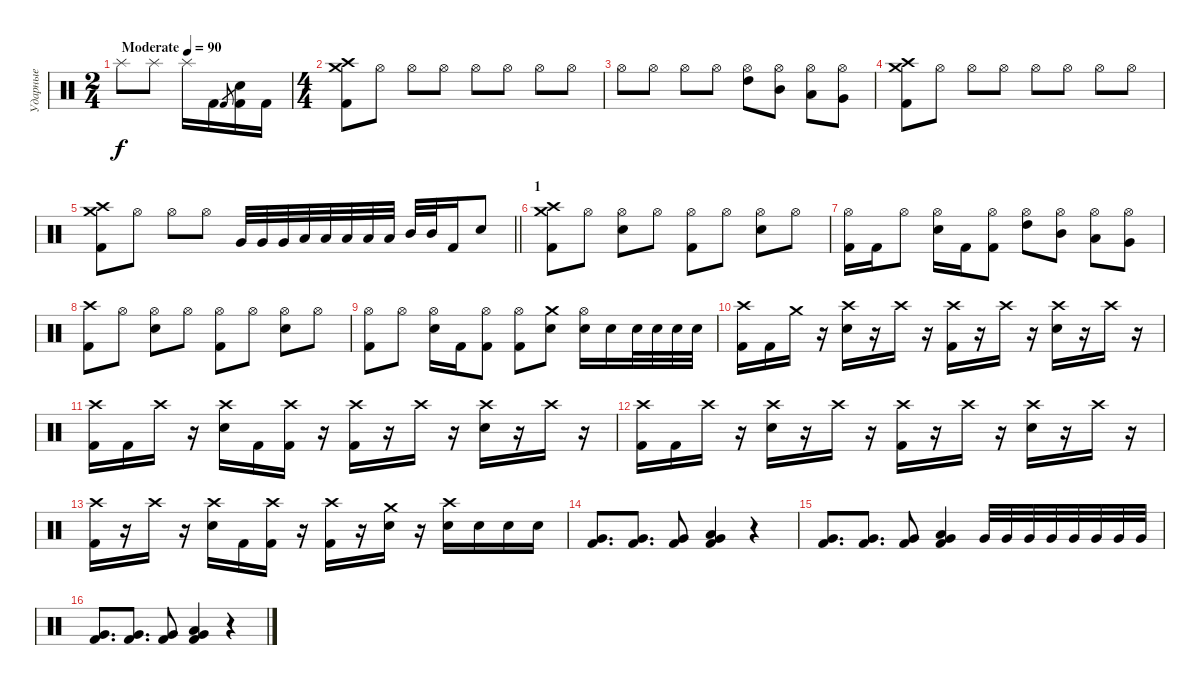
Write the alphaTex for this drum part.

\track ("Ударные" "Ударные") {instrument percussion}
\staff {score}
\articulation defaults
\ts (2 4)
\tempo (90 "Moderate")
\clef neutral
\ks c "Splash (hit)".8{dy f} "Splash (hit)".8 "Splash (hit)".16 "Kick (hit) 2".16 "Kick (hit) 2".8{gr}
("Snare (hit) 2" "Kick (hit) 2").16 "Kick (hit) 2".16 |
\ts (4 4)
("Crash high (hit)" "Crash medium (hit)" "Kick (hit) 2").8 "Hi-Hat (open)".8 "Hi-Hat (open)".8 "Hi-Hat (open)".8 "Hi-Hat (open)".8 "Hi-Hat (open)".8 "Hi-Hat (open)".8 "Hi-Hat (open)".8 |
"Hi-Hat (open)".8 "Hi-Hat (open)".8 "Hi-Hat (open)".8 "Hi-Hat (open)".8 ("Hi-Hat (open)" "High Tom (hit)").8 ("Hi-Hat (open)" "Mid Tom (hit)").8 ("Hi-Hat (open)" "Low Tom (hit)").8 ("Hi-Hat (open)" "Very Low Tom (hit)").8 |
("Crash high (hit)" "Crash medium (hit)" "Kick (hit) 2").8 "Hi-Hat (open)".8 "Hi-Hat (open)".8 "Hi-Hat (open)".8 "Hi-Hat (open)".8 "Hi-Hat (open)".8 "Hi-Hat (open)".8 "Hi-Hat (open)".8 |
\barLineRight lightlight
("Crash high (hit)" "Crash medium (hit)" "Kick (hit) 2").8 "Hi-Hat (open)".8 "Hi-Hat (open)".8 "Hi-Hat (open)".8 "Very Low Tom (hit)".32 "Very Low Tom (hit)".32 "Very Low Tom (hit)".32 "Low Tom (hit)".32 "Low Tom (hit)".32 "Low Tom (hit)".32 "Low Tom (hit)".32 "Low Tom (hit)".32 "Mid Tom (hit)".32 "Mid Tom (hit)".32 "Kick (hit) 2".16 "Snare (hit) 2".8 |
\section ("" "1")
("Crash high (hit)" "Crash medium (hit)" "Kick (hit) 2").8 "Hi-Hat (open)".8 ("Hi-Hat (open)" "Snare (hit) 2").8 "Hi-Hat (open)".8 ("Hi-Hat (open)" "Kick (hit) 2").8 "Hi-Hat (open)".8 ("Hi-Hat (open)" "Snare (hit) 2").8 "Hi-Hat (open)".8 |
("Hi-Hat (open)" "Kick (hit) 2").16 "Kick (hit) 2".16 "Hi-Hat (open)".8 ("Hi-Hat (open)" "Snare (hit) 2").16 "Kick (hit) 2".16 ("Hi-Hat (open)" "Kick (hit) 2").8 ("Hi-Hat (open)" "High Tom (hit)").8 ("Hi-Hat (open)" "Mid Tom (hit)").8 ("Hi-Hat (open)" "Low Tom (hit)").8 ("Hi-Hat (open)" "Very Low Tom (hit)").8 |
("Crash high (hit)" "Kick (hit) 2").8 "Hi-Hat (open)".8 ("Hi-Hat (open)" "Snare (hit) 2").8 "Hi-Hat (open)".8 ("Hi-Hat (open)" "Kick (hit) 2").8 "Hi-Hat (open)".8 ("Hi-Hat (open)" "Snare (hit) 2").8 "Hi-Hat (open)".8 |
("Hi-Hat (open)" "Kick (hit) 2").8 "Hi-Hat (open)".8 ("Hi-Hat (open)" "Snare (hit) 2").16 "Kick (hit) 2".16 ("Hi-Hat (open)" "Kick (hit) 2").8 ("Hi-Hat (open)" "Kick (hit) 2").8 ("Crash medium (hit)" "Snare (hit) 2").8 ("Hi-Hat (open)" "Snare (hit) 2").16 "Snare (hit) 2".16 "Snare (hit) 2".32 "Snare (hit) 2".32 "Snare (hit) 2".32 "Snare (hit) 2".32 |
("Crash high (hit)" "Kick (hit) 2").16 "Kick (hit) 2".16 "Crash medium (hit)".16 r.16 ("Crash high (hit)" "Snare (hit) 2").16 r.16 "Crash high (hit)".16 r.16 ("Crash high (hit)" "Kick (hit) 2").16 r.16 "Crash high (hit)".16 r.16 ("Crash high (hit)" "Snare (hit) 2").16 r.16 "Crash high (hit)".16 r.16 |
("Crash high (hit)" "Kick (hit) 2").16 "Kick (hit) 2".16 "Crash high (hit)".16 r.16 ("Crash high (hit)" "Snare (hit) 2").16 "Kick (hit) 2".16 ("Crash high (hit)" "Kick (hit) 2").16 r.16 ("Crash high (hit)" "Kick (hit) 2").16 r.16 "Crash high (hit)".16 r.16 ("Crash high (hit)" "Snare (hit) 2").16 r.16 "Crash high (hit)".16 r.16 |
("Crash high (hit)" "Kick (hit) 2").16 "Kick (hit) 2".16 "Crash high (hit)".16 r.16 ("Crash high (hit)" "Snare (hit) 2").16 r.16 "Crash high (hit)".16 r.16 ("Crash high (hit)" "Kick (hit) 2").16 r.16 "Crash high (hit)".16 r.16 ("Crash high (hit)" "Snare (hit) 2").16 r.16 "Crash high (hit)".16 r.16 |
("Crash high (hit)" "Kick (hit) 2").16 r.16 "Crash high (hit)".16 r.16 ("Crash high (hit)" "Snare (hit) 2").16 "Kick (hit) 2".16 ("Crash high (hit)" "Kick (hit) 2").16 r.16 ("Crash high (hit)" "Kick (hit) 2").16 r.16 ("Crash medium (hit)" "Snare (hit) 2").16 r.16 ("Crash high (hit)" "Snare (hit) 2").16 "Snare (hit) 2".16 "Snare (hit) 2".16 "Snare (hit) 2".16 |
("Very Low Tom (hit)" "Kick (hit) 2").8{d} ("Very Low Tom (hit)" "Kick (hit) 2").8{d} ("Very Low Tom (hit)" "Kick (hit) 2").8 ("Very Low Tom (hit)" "Low Tom (hit)" "Kick (hit) 2").4 r.4 |
("Very Low Tom (hit)" "Kick (hit) 2").8{d} ("Very Low Tom (hit)" "Kick (hit) 2").8{d} ("Very Low Tom (hit)" "Kick (hit) 2").8 ("Very Low Tom (hit)" "Low Tom (hit)" "Kick (hit) 2").4 "Very Low Tom (hit)".32 "Very Low Tom (hit)".32 "Very Low Tom (hit)".32 "Very Low Tom (hit)".32 "Very Low Tom (hit)".32 "Very Low Tom (hit)".32 "Very Low Tom (hit)".32 "Very Low Tom (hit)".32 |
("Very Low Tom (hit)" "Kick (hit) 2").8{d} ("Very Low Tom (hit)" "Kick (hit) 2").8{d} ("Very Low Tom (hit)" "Kick (hit) 2").8 ("Very Low Tom (hit)" "Low Tom (hit)" "Kick (hit) 2").4 r.4
